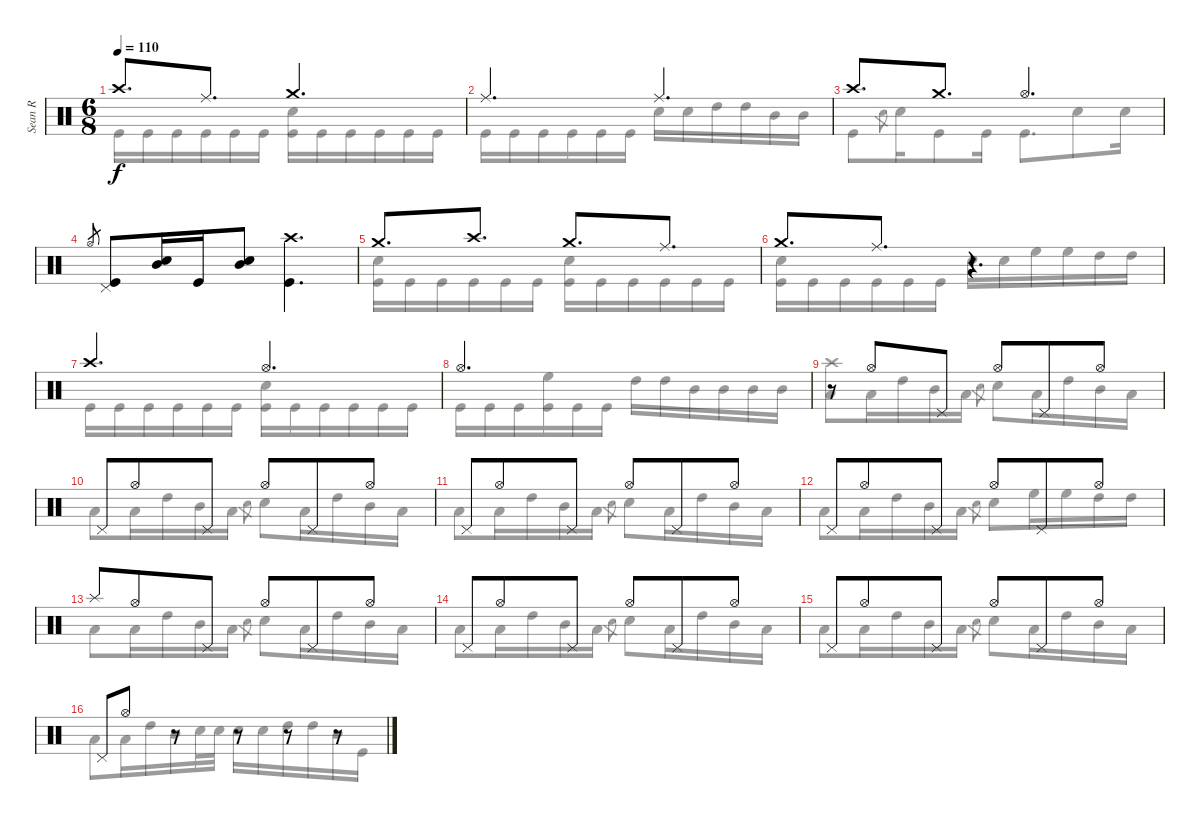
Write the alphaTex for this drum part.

\track ("Sean R" "Sean R") {instrument percussion}
\staff {score}
\articulation defaults
\voice
\ts (6 8)
\tempo 110
\clef neutral
\ks c "Crash high (hit)".8{d dy f} "Ride (middle)".8{d} "Crash medium (hit)".4{d}
|
"Ride (middle)".4{d} "Ride (middle)".4{d} |
"Crash high (hit)".8{d} "Crash medium (hit)".8{d} "Hi-Hat (open)".4{d} |
"Hi-Hat (open)".8{gr} ("Pedal Hi-Hat (hit)" "Kick (hit)").8 ("Mid Tom (hit)" "Snare (hit) 2").16 "Kick (hit)".16 ("Mid Tom (hit)" "Snare (hit) 2").8 ("Crash high (hit)" "Kick (hit)").4{d} |
"Crash medium (hit)".8{d} "Crash high (hit)".8{d} "Crash medium (hit)".8{d} "Ride (middle)".8{d} |
"Crash medium (hit)".8{d} "Ride (middle)".8{d} r.4{d} |
"Crash high (hit)".4{d} "Hi-Hat (open)".4{d} |
"Hi-Hat (open)".2{d} |
r.8 "Hi-Hat (open)".8 "Pedal Hi-Hat (hit)".8 "Hi-Hat (open)".8 "Pedal Hi-Hat (hit)".8 "Hi-Hat (open)".8 |
"Pedal Hi-Hat (hit)".8 "Hi-Hat (open)".8 "Pedal Hi-Hat (hit)".8 "Hi-Hat (open)".8 "Pedal Hi-Hat (hit)".8 "Hi-Hat (open)".8 |
"Pedal Hi-Hat (hit)".8 "Hi-Hat (open)".8 "Pedal Hi-Hat (hit)".8 "Hi-Hat (open)".8 "Pedal Hi-Hat (hit)".8 "Hi-Hat (open)".8 |
"Pedal Hi-Hat (hit)".8 "Hi-Hat (open)".8 "Pedal Hi-Hat (hit)".8 "Hi-Hat (open)".8 "Pedal Hi-Hat (hit)".8 "Hi-Hat (open)".8 |
"Splash (hit)".8 "Hi-Hat (open)".8 "Pedal Hi-Hat (hit)".8 "Hi-Hat (open)".8 "Pedal Hi-Hat (hit)".8 "Hi-Hat (open)".8 |
"Pedal Hi-Hat (hit)".8 "Hi-Hat (open)".8 "Pedal Hi-Hat (hit)".8 "Hi-Hat (open)".8 "Pedal Hi-Hat (hit)".8 "Hi-Hat (open)".8 |
"Pedal Hi-Hat (hit)".8 "Hi-Hat (open)".8 "Pedal Hi-Hat (hit)".8 "Hi-Hat (open)".8 "Pedal Hi-Hat (hit)".8 "Hi-Hat (open)".8 |
"Pedal Hi-Hat (hit)".8 "Hi-Hat (open)".8 r.8 r.8 r.8 r.8
\voice
\clef neutral
\ottava regular
\simile none
\ks c "Kick (hit)".16{dy f} "Kick (hit)".16 "Kick (hit)".16 "Kick (hit)".16 "Kick (hit)".16 "Kick (hit)".16
("Snare (hit) 2" "Kick (hit)").16 "Kick (hit)".16 "Kick (hit)".16 "Kick (hit)".16 "Kick (hit)".16 "Kick (hit)".16 |
"Kick (hit)".16 "Kick (hit)".16 "Kick (hit)".16 "Kick (hit)".16 "Kick (hit)".16 "Kick (hit)".16 "Snare (hit) 2".16 "Snare (hit) 2".16 "High Tom (hit)".16 "High Tom (hit)".16 "Mid Tom (hit)".16 "Mid Tom (hit)".16 |
"Kick (hit)".8 "Snare (hit) 2".8{gr} "Snare (hit) 2".16 "Kick (hit)".8 "Kick (hit)".16 "Kick (hit)".8{d} "Snare (hit) 2".8 "Snare (hit) 2".16 |
|
("Snare (hit) 2" "Kick (hit)").16 "Kick (hit)".16 "Kick (hit)".16 "Kick (hit)".16 "Kick (hit)".16 "Kick (hit)".16 ("Snare (hit) 2" "Kick (hit)").16 "Kick (hit)".16 "Kick (hit)".16 "Kick (hit)".16 "Kick (hit)".16 "Kick (hit)".16 |
("Snare (hit) 2" "Kick (hit)").16 "Kick (hit)".16 "Kick (hit)".16 "Kick (hit)".16 "Kick (hit)".16 "Kick (hit)".16 "Snare (hit) 2".16 "Snare (hit) 2".16 "High Floor Tom (hit)".16 "High Floor Tom (hit)".16 "High Tom (hit)".16 "High Tom (hit)".16 |
"Kick (hit)".16 "Kick (hit)".16 "Kick (hit)".16 "Kick (hit)".16 "Kick (hit)".16 "Kick (hit)".16 ("Snare (hit) 2" "Kick (hit)").16 "Kick (hit)".16 "Kick (hit)".16 "Kick (hit)".16 "Kick (hit)".16 "Kick (hit)".16 |
"Kick (hit)".16 "Kick (hit)".16 "Kick (hit)".16 ("High Floor Tom (hit)" "Kick (hit)").16 "Kick (hit)".16 "Kick (hit)".16 "High Tom (hit)".16 "High Tom (hit)".16 "Mid Tom (hit)".16 "Mid Tom (hit)".16 "Mid Tom (hit)".16 "Mid Tom (hit)".16 |
("Crash high (hit)" "Low Tom (hit)").8 "Low Tom (hit)".16 "High Tom (hit)".16 "Mid Tom (hit)".16 "Low Tom (hit)".16 "Snare (hit) 2".8{gr} "Snare (hit) 2".8 "Low Tom (hit)".16 "High Tom (hit)".16 "Mid Tom (hit)".16 "Low Tom (hit)".16 |
"Low Tom (hit)".8 "Low Tom (hit)".16 "High Tom (hit)".16 "Mid Tom (hit)".16 "Low Tom (hit)".16 "Snare (hit) 2".8{gr} "Snare (hit) 2".8 "Low Tom (hit)".16 "High Tom (hit)".16 "Mid Tom (hit)".16 "Low Tom (hit)".16 |
"Low Tom (hit)".8 "Low Tom (hit)".16 "High Tom (hit)".16 "Mid Tom (hit)".16 "Low Tom (hit)".16 "Snare (hit) 2".8{gr} "Snare (hit) 2".8 "Low Tom (hit)".16 "High Tom (hit)".16 "Mid Tom (hit)".16 "Low Tom (hit)".16 |
"Low Tom (hit)".8 "Low Tom (hit)".16 "High Tom (hit)".16 "Mid Tom (hit)".16 "Low Tom (hit)".16 "Snare (hit) 2".8{gr} "Snare (hit) 2".8 "High Floor Tom (hit)".16 "High Floor Tom (hit)".16 "High Tom (hit)".16 "High Tom (hit)".16 |
"Low Tom (hit)".8 "Low Tom (hit)".16 "High Tom (hit)".16 "Mid Tom (hit)".16 "Low Tom (hit)".16 "Snare (hit) 2".8{gr} "Snare (hit) 2".8 "Low Tom (hit)".16 "High Tom (hit)".16 "Mid Tom (hit)".16 "Low Tom (hit)".16 |
"Low Tom (hit)".8 "Low Tom (hit)".16 "High Tom (hit)".16 "Mid Tom (hit)".16 "Low Tom (hit)".16 "Snare (hit) 2".8{gr} "Snare (hit) 2".8 "Low Tom (hit)".16 "High Tom (hit)".16 "Mid Tom (hit)".16 "Low Tom (hit)".16 |
"Low Tom (hit)".8 "Low Tom (hit)".16 "High Tom (hit)".16 "Mid Tom (hit)".16 "Low Tom (hit)".16 "Snare (hit) 2".8{gr} "Snare (hit) 2".8 "Low Tom (hit)".16 "High Tom (hit)".16 "Mid Tom (hit)".16 "Low Tom (hit)".16 |
"Low Tom (hit)".8 "Low Tom (hit)".16 "High Tom (hit)".16 "Mid Tom (hit)".16 "Snare (hit) 2".32 "Snare (hit) 2".32 "Snare (hit) 2".16 "Snare (hit) 2".16 "High Tom (hit)".16 "High Tom (hit)".16 "Mid Tom (hit)".16 "Kick (hit)".16
